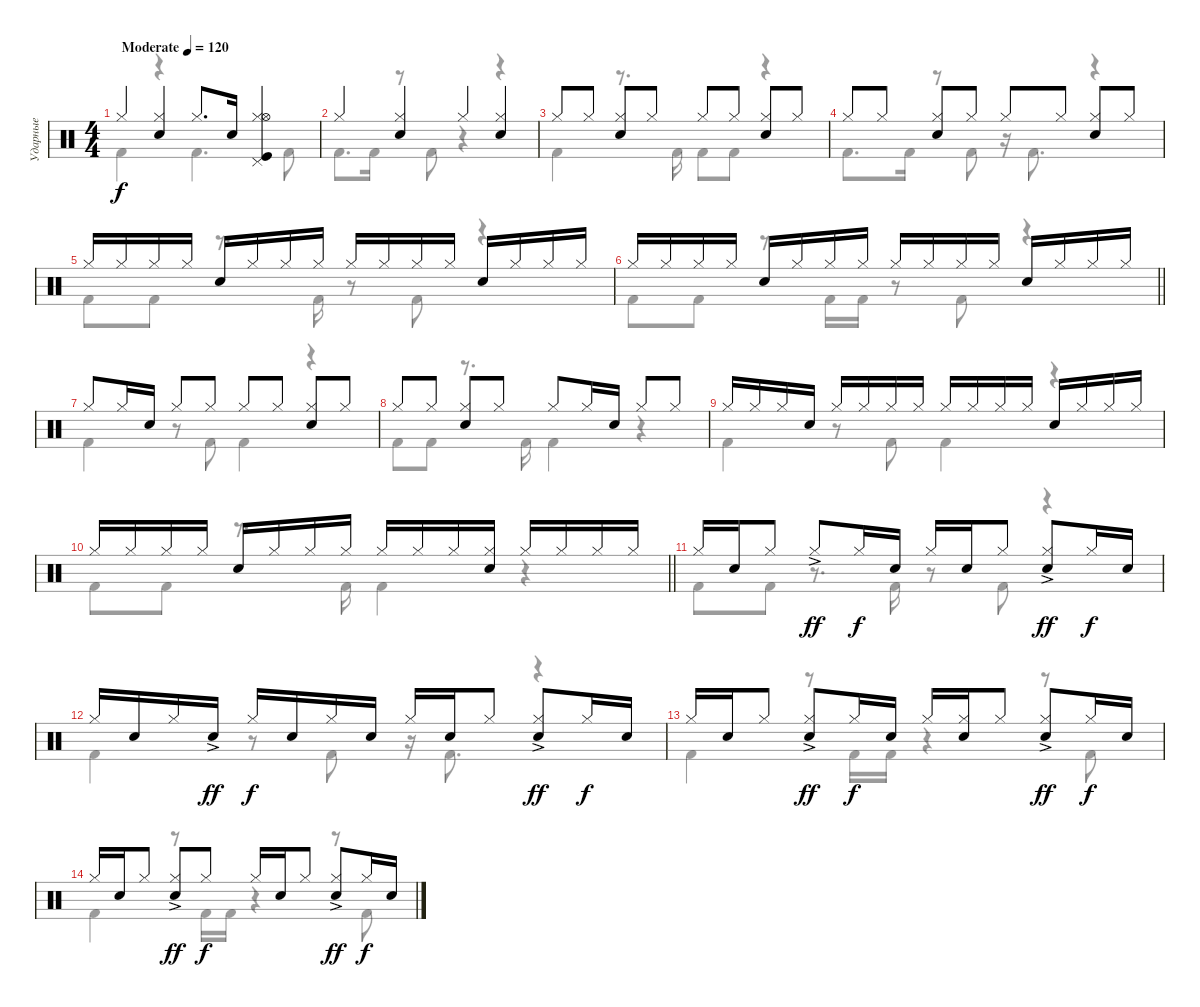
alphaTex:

\track ("Ударные" "Ударные") {instrument percussion}
\staff {score}
\articulation defaults
\voice
\ts (4 4)
\tempo (120 "Moderate")
\clef neutral
\ks c "Hi-Hat (closed)".4{dy f}
("Hi-Hat (closed)" "Electric Snare (hit)").4 "Hi-Hat (closed)".8{d} "Electric Snare (hit)".16 ("Hi-Hat (closed)" "Pedal Hi-Hat (hit)" "Kick (hit)" "Hi-Hat (open)").4 |
"Hi-Hat (closed)".4 ("Hi-Hat (closed)" "Electric Snare (hit)").4 "Hi-Hat (closed)".4 ("Hi-Hat (closed)" "Electric Snare (hit)").4 |
"Hi-Hat (closed)".8 "Hi-Hat (closed)".8 ("Hi-Hat (closed)" "Electric Snare (hit)").8 "Hi-Hat (closed)".8 "Hi-Hat (closed)".8 "Hi-Hat (closed)".8 ("Hi-Hat (closed)" "Electric Snare (hit)").8 "Hi-Hat (closed)".8 |
"Hi-Hat (closed)".8 "Hi-Hat (closed)".8 ("Hi-Hat (closed)" "Electric Snare (hit)").8 "Hi-Hat (closed)".8 "Hi-Hat (closed)".8 "Hi-Hat (closed)".8 ("Hi-Hat (closed)" "Electric Snare (hit)").8 "Hi-Hat (closed)".8 |
"Hi-Hat (closed)".16 "Hi-Hat (closed)".16 "Hi-Hat (closed)".16 "Hi-Hat (closed)".16 "Electric Snare (hit)".16 "Hi-Hat (closed)".16 "Hi-Hat (closed)".16 "Hi-Hat (closed)".16 "Hi-Hat (closed)".16 "Hi-Hat (closed)".16 "Hi-Hat (closed)".16 "Hi-Hat (closed)".16 "Electric Snare (hit)".16 "Hi-Hat (closed)".16 "Hi-Hat (closed)".16 "Hi-Hat (closed)".16 |
\barLineRight lightlight "Hi-Hat (closed)".16 "Hi-Hat (closed)".16 "Hi-Hat (closed)".16 "Hi-Hat (closed)".16 "Electric Snare (hit)".16 "Hi-Hat (closed)".16 "Hi-Hat (closed)".16 "Hi-Hat (closed)".16 "Hi-Hat (closed)".16 "Hi-Hat (closed)".16 "Hi-Hat (closed)".16 "Hi-Hat (closed)".16 "Electric Snare (hit)".16 "Hi-Hat (closed)".16 "Hi-Hat (closed)".16 "Hi-Hat (closed)".16
|
"Hi-Hat (closed)".8 "Hi-Hat (closed)".16 "Electric Snare (hit)".16 "Hi-Hat (closed)".8 "Hi-Hat (closed)".8 "Hi-Hat (closed)".8 "Hi-Hat (closed)".8 ("Hi-Hat (closed)" "Electric Snare (hit)").8 "Hi-Hat (closed)".8 |
"Hi-Hat (closed)".8 "Hi-Hat (closed)".8 ("Hi-Hat (closed)" "Electric Snare (hit)").8 "Hi-Hat (closed)".8 "Hi-Hat (closed)".8 "Hi-Hat (closed)".16 "Electric Snare (hit)".16 "Hi-Hat (closed)".8 "Hi-Hat (closed)".8 |
"Hi-Hat (closed)".16 "Hi-Hat (closed)".16 "Hi-Hat (closed)".16 "Electric Snare (hit)".16 "Hi-Hat (closed)".16 "Hi-Hat (closed)".16 "Hi-Hat (closed)".16 "Hi-Hat (closed)".16 "Hi-Hat (closed)".16 "Hi-Hat (closed)".16 "Hi-Hat (closed)".16 "Hi-Hat (closed)".16 "Electric Snare (hit)".16 "Hi-Hat (closed)".16 "Hi-Hat (closed)".16 "Hi-Hat (closed)".16 |
\barLineRight lightlight "Hi-Hat (closed)".16 "Hi-Hat (closed)".16 "Hi-Hat (closed)".16 "Hi-Hat (closed)".16 "Electric Snare (hit)".16 "Hi-Hat (closed)".16 "Hi-Hat (closed)".16 "Hi-Hat (closed)".16 "Hi-Hat (closed)".16 "Hi-Hat (closed)".16 "Hi-Hat (closed)".16
("Hi-Hat (closed)" "Electric Snare (hit)").16 "Hi-Hat (closed)".16 "Hi-Hat (closed)".16 "Hi-Hat (closed)".16 "Hi-Hat (closed)".16 |
"Hi-Hat (closed)".16 "Electric Snare (hit)".16 "Hi-Hat (closed)".8 "Hi-Hat (closed)"{ac}.8{dy ff} "Hi-Hat (closed)".16{dy f} "Electric Snare (hit)".16 "Hi-Hat (closed)".16 "Electric Snare (hit)".16 "Hi-Hat (closed)".8 ("Hi-Hat (closed)"{ac} "Electric Snare (hit)").8{dy ff} "Hi-Hat (closed)".16{dy f} "Electric Snare (hit)".16 |
"Hi-Hat (closed)".16 "Electric Snare (hit)".16 "Hi-Hat (closed)".16 "Electric Snare (hit)"{ac}.16{dy ff} "Hi-Hat (closed)".16{dy f} "Electric Snare (hit)".16 "Hi-Hat (closed)".16 "Electric Snare (hit)".16 "Hi-Hat (closed)".16 "Electric Snare (hit)".16 "Hi-Hat (closed)".8 ("Hi-Hat (closed)"{ac} "Electric Snare (hit)").8{dy ff} "Hi-Hat (closed)".16{dy f} "Electric Snare (hit)".16 |
"Hi-Hat (closed)".16 "Electric Snare (hit)".16 "Hi-Hat (closed)".8 ("Hi-Hat (closed)"{ac} "Electric Snare (hit)").8{dy ff} "Hi-Hat (closed)".16{dy f} "Electric Snare (hit)".16 "Hi-Hat (closed)".16 ("Hi-Hat (closed)" "Electric Snare (hit)").16 "Hi-Hat (closed)".8 ("Hi-Hat (closed)"{ac} "Electric Snare (hit)").8{dy ff} "Hi-Hat (closed)".16{dy f} "Electric Snare (hit)".16 |
"Hi-Hat (closed)".16 "Electric Snare (hit)".16 "Hi-Hat (closed)".8 ("Hi-Hat (closed)"{ac} "Electric Snare (hit)").8{dy ff} "Hi-Hat (closed)".8{dy f} "Hi-Hat (closed)".16 "Electric Snare (hit)".16 "Hi-Hat (closed)".8 ("Hi-Hat (closed)"{ac} "Electric Snare (hit)").8{dy ff} "Hi-Hat (closed)".16{dy f} "Electric Snare (hit)".16
\voice
\clef neutral
\ottava regular
\simile none
\ks c "Kick (hit) 2".4{dy f}
r.4 "Kick (hit) 2".4{d} "Kick (hit) 2".8 |
"Kick (hit) 2".8{d} "Kick (hit) 2".16 r.8 "Kick (hit) 2".8 r.4 r.4 |
"Kick (hit) 2".4 r.8{d} "Kick (hit) 2".16 "Kick (hit) 2".8 "Kick (hit) 2".8 r.4 |
"Kick (hit) 2".8{d} "Kick (hit) 2".16 r.8 "Kick (hit) 2".8 r.16 "Kick (hit) 2".8{d} r.4 |
"Kick (hit) 2".8 "Kick (hit) 2".8 r.8{d} "Kick (hit) 2".16 r.8 "Kick (hit) 2".8 r.4 |
\barLineRight lightlight "Kick (hit) 2".8 "Kick (hit) 2".8
r.8 "Kick (hit) 2".16 "Kick (hit) 2".16 r.8 "Kick (hit) 2".8 r.4 |
"Kick (hit) 2".4 r.8 "Kick (hit) 2".8 "Kick (hit) 2".4 r.4 |
"Kick (hit) 2".8 "Kick (hit) 2".8 r.8{d} "Kick (hit) 2".16 "Kick (hit) 2".4 r.4 |
"Kick (hit) 2".4 r.8 "Kick (hit) 2".8 "Kick (hit) 2".4 r.4 |
\barLineRight lightlight "Kick (hit) 2".8 "Kick (hit) 2".8
r.8{d} "Kick (hit) 2".16 "Kick (hit) 2".4 r.4 |
"Kick (hit) 2".8 "Kick (hit) 2".8 r.8{d} "Kick (hit) 2".16 r.8 "Kick (hit) 2".8 r.4 |
"Kick (hit) 2".4 r.8 "Kick (hit) 2".8 r.16 "Kick (hit) 2".8{d} r.4 |
"Kick (hit) 2".4 r.8 "Kick (hit) 2".16 "Kick (hit) 2".16 r.4 r.8 "Kick (hit) 2".8 |
"Kick (hit) 2".4 r.8 "Kick (hit) 2".16 "Kick (hit) 2".16 r.4 r.8 "Kick (hit) 2".8
